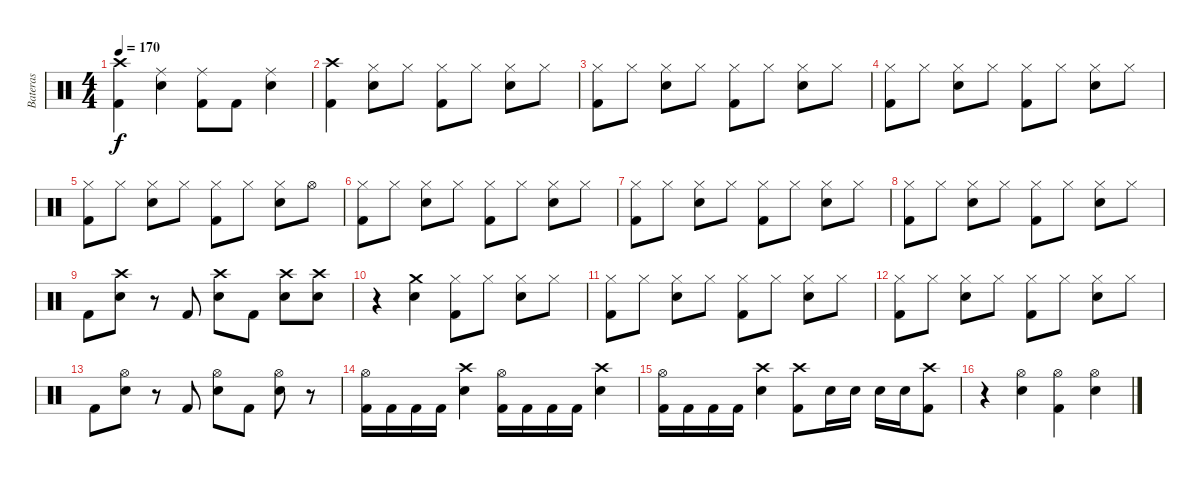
\track ("Bateras" "Bateras") {instrument percussion}
\staff {score}
\articulation defaults
\ts (4 4)
\tempo 170
\clef neutral
\ks c
("Crash high (hit)"{t} "Kick (hit) 2"{t}).4{dy f} ("Ride (middle)" "Snare (hit) 2").4 ("Ride (middle)" "Kick (hit) 2").8 "Kick (hit) 2".8 ("Ride (middle)" "Snare (hit) 2").4 |
("Crash high (hit)" "Kick (hit) 2").4 ("Hi-Hat (closed)" "Snare (hit) 2").8 "Hi-Hat (closed)".8 ("Hi-Hat (closed)" "Kick (hit) 2").8 "Hi-Hat (closed)".8 ("Hi-Hat (closed)" "Snare (hit) 2").8 "Hi-Hat (closed)".8 |
("Hi-Hat (closed)" "Kick (hit) 2").8 "Hi-Hat (closed)".8 ("Hi-Hat (closed)" "Snare (hit) 2").8 "Hi-Hat (closed)".8 ("Hi-Hat (closed)" "Kick (hit) 2").8 "Hi-Hat (closed)".8 ("Hi-Hat (closed)" "Snare (hit) 2").8 "Hi-Hat (closed)".8 |
("Hi-Hat (closed)" "Kick (hit) 2").8 "Hi-Hat (closed)".8 ("Hi-Hat (closed)" "Snare (hit) 2").8 "Hi-Hat (closed)".8 ("Hi-Hat (closed)" "Kick (hit) 2").8 "Hi-Hat (closed)".8 ("Hi-Hat (closed)" "Snare (hit) 2").8 "Hi-Hat (closed)".8 |
("Hi-Hat (closed)" "Kick (hit) 2").8 "Hi-Hat (closed)".8 ("Hi-Hat (closed)" "Snare (hit) 2").8 "Hi-Hat (closed)".8 ("Hi-Hat (closed)" "Kick (hit) 2").8 "Hi-Hat (closed)".8 ("Hi-Hat (closed)" "Snare (hit) 2").8 "Hi-Hat (open)".8 |
("Hi-Hat (closed)" "Kick (hit) 2").8 "Hi-Hat (closed)".8 ("Hi-Hat (closed)" "Snare (hit) 2").8 "Hi-Hat (closed)".8 ("Hi-Hat (closed)" "Kick (hit) 2").8 "Hi-Hat (closed)".8 ("Hi-Hat (closed)" "Snare (hit) 2").8 "Hi-Hat (closed)".8 |
("Hi-Hat (closed)" "Kick (hit) 2").8 "Hi-Hat (closed)".8 ("Hi-Hat (closed)" "Snare (hit) 2").8 "Hi-Hat (closed)".8 ("Hi-Hat (closed)" "Kick (hit) 2").8 "Hi-Hat (closed)".8 ("Hi-Hat (closed)" "Snare (hit) 2").8 "Hi-Hat (closed)".8 |
("Hi-Hat (closed)" "Kick (hit) 2").8 "Hi-Hat (closed)".8 ("Hi-Hat (closed)" "Snare (hit) 2").8 "Hi-Hat (closed)".8 ("Hi-Hat (closed)" "Kick (hit) 2").8 "Hi-Hat (closed)".8 ("Hi-Hat (closed)" "Snare (hit) 2").8 "Hi-Hat (closed)".8 |
"Kick (hit) 2".8 ("Crash high (hit)" "Snare (hit) 2").8 r.8 "Kick (hit) 2".8 ("Crash high (hit)" "Snare (hit) 2").8 "Kick (hit) 2".8 ("Crash high (hit)" "Snare (hit) 2").8 ("Crash high (hit)" "Snare (hit) 2").8 |
r.4 ("Crash medium (hit)" "Snare (hit) 2").4 ("Hi-Hat (closed)" "Kick (hit) 2").8 "Hi-Hat (closed)".8 ("Hi-Hat (closed)" "Snare (hit) 2").8 "Hi-Hat (closed)".8 |
("Hi-Hat (closed)" "Kick (hit) 2").8 "Hi-Hat (closed)".8 ("Hi-Hat (closed)" "Snare (hit) 2").8 "Hi-Hat (closed)".8 ("Hi-Hat (closed)" "Kick (hit) 2").8 "Hi-Hat (closed)".8 ("Hi-Hat (closed)" "Snare (hit) 2").8 "Hi-Hat (closed)".8 |
("Hi-Hat (closed)" "Kick (hit) 2").8 "Hi-Hat (closed)".8 ("Hi-Hat (closed)" "Snare (hit) 2").8 "Hi-Hat (closed)".8 ("Hi-Hat (closed)" "Kick (hit) 2").8 "Hi-Hat (closed)".8 ("Hi-Hat (closed)" "Snare (hit) 2").8 "Hi-Hat (closed)".8 |
"Kick (hit) 2".8 ("Hi-Hat (open)" "Snare (hit) 2").8 r.8 "Kick (hit) 2".8 ("Hi-Hat (open)" "Snare (hit) 2").8 "Kick (hit) 2".8 ("Hi-Hat (open)" "Snare (hit) 2").8 r.8 |
("Hi-Hat (open)" "Kick (hit) 2").16 "Kick (hit) 2".16 "Kick (hit) 2".16 "Kick (hit) 2".16 ("Crash high (hit)" "Snare (hit) 2").4 ("Hi-Hat (open)" "Kick (hit) 2").16 "Kick (hit) 2".16 "Kick (hit) 2".16 "Kick (hit) 2".16 ("Crash high (hit)" "Snare (hit) 2").4 |
("Hi-Hat (open)" "Kick (hit) 2").16 "Kick (hit) 2".16 "Kick (hit) 2".16 "Kick (hit) 2".16 ("Crash high (hit)" "Snare (hit) 2").4 ("Crash high (hit)" "Kick (hit) 2").8 "Snare (hit) 2".16 "Snare (hit) 2".16 "Snare (hit) 2".16 "Snare (hit) 2".16 ("Crash high (hit)" "Kick (hit) 2").8 |
r.4 ("Hi-Hat (open)" "Snare (hit) 2").4 ("Hi-Hat (open)" "Kick (hit) 2").4 ("Hi-Hat (open)" "Snare (hit) 2").4
